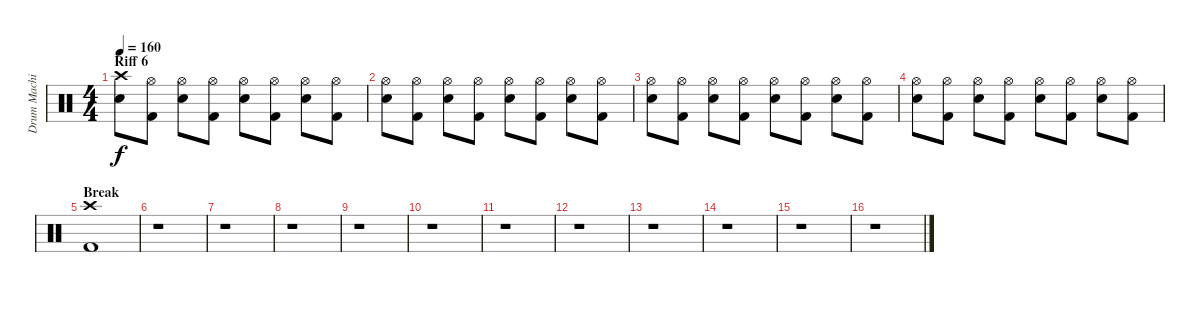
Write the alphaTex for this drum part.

\track ("Drum Machine" "Drum Machi") {instrument percussion}
\staff {score}
\articulation defaults
\ts (4 4)
\section ("" "Riff 6")
\tempo 160
\clef neutral
\ks c
("Crash high (hit)" "Electric Snare (hit)").8{dy f} ("Hi-Hat (open)" "Kick (hit) 2").8 ("Hi-Hat (open)" "Electric Snare (hit)").8 ("Hi-Hat (open)" "Kick (hit) 2").8 ("Hi-Hat (open)" "Electric Snare (hit)").8 ("Hi-Hat (open)" "Kick (hit) 2").8 ("Hi-Hat (open)" "Electric Snare (hit)").8 ("Hi-Hat (open)" "Kick (hit) 2").8 |
("Hi-Hat (open)" "Electric Snare (hit)").8 ("Hi-Hat (open)" "Kick (hit) 2").8 ("Hi-Hat (open)" "Electric Snare (hit)").8 ("Hi-Hat (open)" "Kick (hit) 2").8 ("Hi-Hat (open)" "Electric Snare (hit)").8 ("Hi-Hat (open)" "Kick (hit) 2").8 ("Hi-Hat (open)" "Electric Snare (hit)").8 ("Hi-Hat (open)" "Kick (hit) 2").8 |
("Hi-Hat (open)" "Electric Snare (hit)").8 ("Hi-Hat (open)" "Kick (hit) 2").8 ("Hi-Hat (open)" "Electric Snare (hit)").8 ("Hi-Hat (open)" "Kick (hit) 2").8 ("Hi-Hat (open)" "Electric Snare (hit)").8 ("Hi-Hat (open)" "Kick (hit) 2").8 ("Hi-Hat (open)" "Electric Snare (hit)").8 ("Hi-Hat (open)" "Kick (hit) 2").8 |
("Hi-Hat (open)" "Electric Snare (hit)").8 ("Hi-Hat (open)" "Kick (hit) 2").8 ("Hi-Hat (open)" "Electric Snare (hit)").8 ("Hi-Hat (open)" "Kick (hit) 2").8 ("Hi-Hat (open)" "Electric Snare (hit)").8 ("Hi-Hat (open)" "Kick (hit) 2").8 ("Hi-Hat (open)" "Electric Snare (hit)").8 ("Hi-Hat (open)" "Kick (hit) 2").8 |
\section ("" "Break")
("Crash high (hit)" "Kick (hit) 2").1 |
r.1 |
r.1 |
r.1 |
r.1 |
r.1 |
r.1 |
r.1 |
r.1 |
r.1 |
r.1 |
r.1
